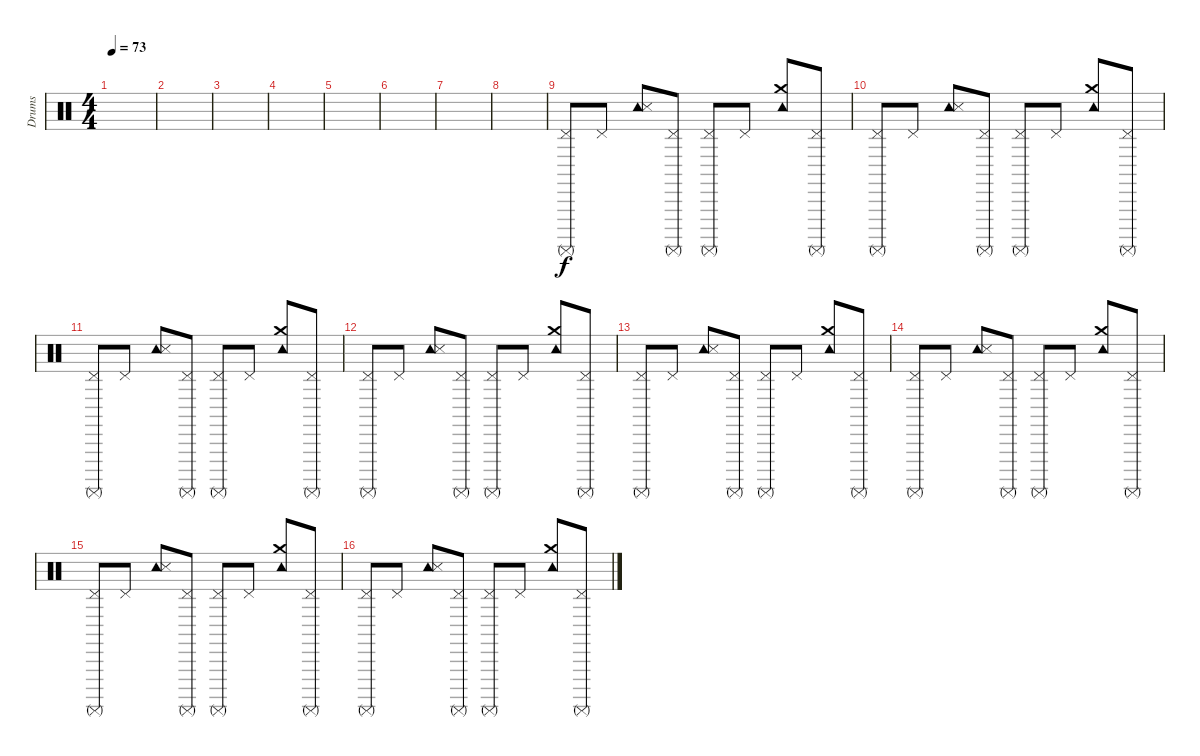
\track ("Drums" "Drums") {instrument percussion}
\staff {score}
\articulation defaults
\ts (4 4)
\tempo 73
\clef neutral
\ks c
|
|
|
|
|
|
|
|
("Pedal Hi-Hat (hit)" "Surdo (mute)").8 "Pedal Hi-Hat (hit)".8 ("Tambourine (hit)" "Snare (side stick) 3").8 ("Pedal Hi-Hat (hit)" "Surdo (mute)").8 ("Pedal Hi-Hat (hit)" "Surdo (mute)").8 "Pedal Hi-Hat (hit)".8 ("Tambourine (hit)" "Crash medium (hit)").8 ("Pedal Hi-Hat (hit)" "Surdo (mute)").8 |
("Pedal Hi-Hat (hit)" "Surdo (mute)").8 "Pedal Hi-Hat (hit)".8 ("Tambourine (hit)" "Snare (side stick) 3").8 ("Pedal Hi-Hat (hit)" "Surdo (mute)").8 ("Pedal Hi-Hat (hit)" "Surdo (mute)").8 "Pedal Hi-Hat (hit)".8 ("Tambourine (hit)" "Crash medium (hit)").8 ("Pedal Hi-Hat (hit)" "Surdo (mute)").8 |
("Pedal Hi-Hat (hit)" "Surdo (mute)").8 "Pedal Hi-Hat (hit)".8 ("Tambourine (hit)" "Snare (side stick) 3").8 ("Pedal Hi-Hat (hit)" "Surdo (mute)").8 ("Pedal Hi-Hat (hit)" "Surdo (mute)").8 "Pedal Hi-Hat (hit)".8 ("Tambourine (hit)" "Crash medium (hit)").8 ("Pedal Hi-Hat (hit)" "Surdo (mute)").8 |
("Pedal Hi-Hat (hit)" "Surdo (mute)").8 "Pedal Hi-Hat (hit)".8 ("Tambourine (hit)" "Snare (side stick) 3").8 ("Pedal Hi-Hat (hit)" "Surdo (mute)").8 ("Pedal Hi-Hat (hit)" "Surdo (mute)").8 "Pedal Hi-Hat (hit)".8 ("Tambourine (hit)" "Crash medium (hit)").8 ("Pedal Hi-Hat (hit)" "Surdo (mute)").8 |
("Pedal Hi-Hat (hit)" "Surdo (mute)").8 "Pedal Hi-Hat (hit)".8 ("Tambourine (hit)" "Snare (side stick) 3").8 ("Pedal Hi-Hat (hit)" "Surdo (mute)").8 ("Pedal Hi-Hat (hit)" "Surdo (mute)").8 "Pedal Hi-Hat (hit)".8 ("Tambourine (hit)" "Crash medium (hit)").8 ("Pedal Hi-Hat (hit)" "Surdo (mute)").8 |
("Pedal Hi-Hat (hit)" "Surdo (mute)").8 "Pedal Hi-Hat (hit)".8 ("Tambourine (hit)" "Snare (side stick) 3").8 ("Pedal Hi-Hat (hit)" "Surdo (mute)").8 ("Pedal Hi-Hat (hit)" "Surdo (mute)").8 "Pedal Hi-Hat (hit)".8 ("Tambourine (hit)" "Crash medium (hit)").8 ("Pedal Hi-Hat (hit)" "Surdo (mute)").8 |
("Pedal Hi-Hat (hit)" "Surdo (mute)").8 "Pedal Hi-Hat (hit)".8 ("Tambourine (hit)" "Snare (side stick) 3").8 ("Pedal Hi-Hat (hit)" "Surdo (mute)").8 ("Pedal Hi-Hat (hit)" "Surdo (mute)").8 "Pedal Hi-Hat (hit)".8 ("Tambourine (hit)" "Crash medium (hit)").8 ("Pedal Hi-Hat (hit)" "Surdo (mute)").8 |
("Pedal Hi-Hat (hit)" "Surdo (mute)").8 "Pedal Hi-Hat (hit)".8 ("Tambourine (hit)" "Snare (side stick) 3").8 ("Pedal Hi-Hat (hit)" "Surdo (mute)").8 ("Pedal Hi-Hat (hit)" "Surdo (mute)").8 "Pedal Hi-Hat (hit)".8 ("Tambourine (hit)" "Crash medium (hit)").8 ("Pedal Hi-Hat (hit)" "Surdo (mute)").8
